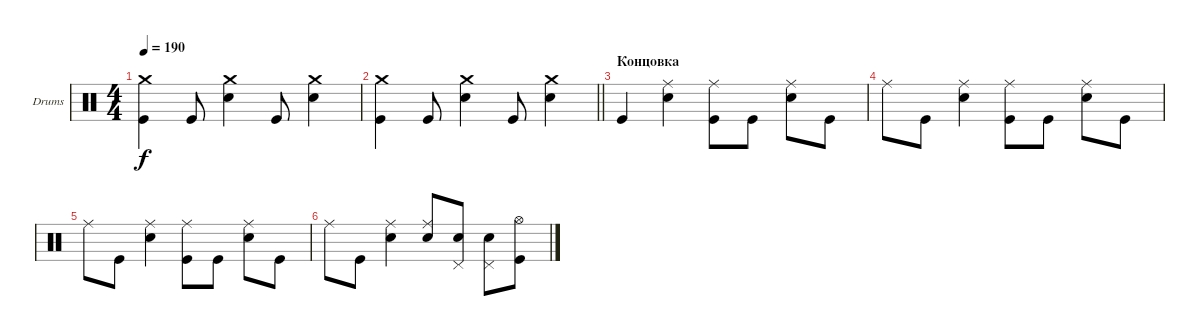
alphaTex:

\bracketExtendMode groupsimilarinstruments
\firstSystemTrackNameOrientation horizontal
\otherSystemsTrackNameOrientation horizontal
\track ("Максим Удалов" "Drums") {instrument percussion}
\staff {score}
\articulation defaults
\ts (4 4)
\tempo 190
\clef neutral
\ks c
("Kick (hit)" "Crash medium (hit)").4{dy f} "Kick (hit)".8 ("Snare (hit) 2" "Crash medium (hit)").4 "Kick (hit)".8 ("Snare (hit) 2" "Crash medium (hit)").4 |
\barLineRight lightlight
("Kick (hit)" "Crash medium (hit)").4 "Kick (hit)".8 ("Snare (hit) 2" "Crash medium (hit)").4 "Kick (hit)".8 ("Snare (hit) 2" "Crash medium (hit)").4 |
\section ("" "Концовка")
"Kick (hit)".4 ("Snare (hit) 2" "Ride (middle)").4 ("Kick (hit)" "Ride (middle)").8 "Kick (hit)".8 ("Snare (hit) 2" "Ride (middle)").8 "Kick (hit)".8 |
"Ride (middle)".8 "Kick (hit)".8 ("Snare (hit) 2" "Ride (middle)").4 ("Kick (hit)" "Ride (middle)").8 "Kick (hit)".8 ("Snare (hit) 2" "Ride (middle)").8 "Kick (hit)".8 |
"Ride (middle)".8 "Kick (hit)".8 ("Snare (hit) 2" "Ride (middle)").4 ("Kick (hit)" "Ride (middle)").8 "Kick (hit)".8 ("Snare (hit) 2" "Ride (middle)").8 "Kick (hit)".8 |
"Ride (middle)".8 "Kick (hit)".8 ("Snare (hit) 2" "Ride (middle)").4 ("Snare (hit) 2" "Ride (middle)").8 ("Snare (hit) 2" "Pedal Hi-Hat (hit)").8 ("Snare (hit) 2" "Pedal Hi-Hat (hit)").8 ("Kick (hit)" "Hi-Hat (open)").8
